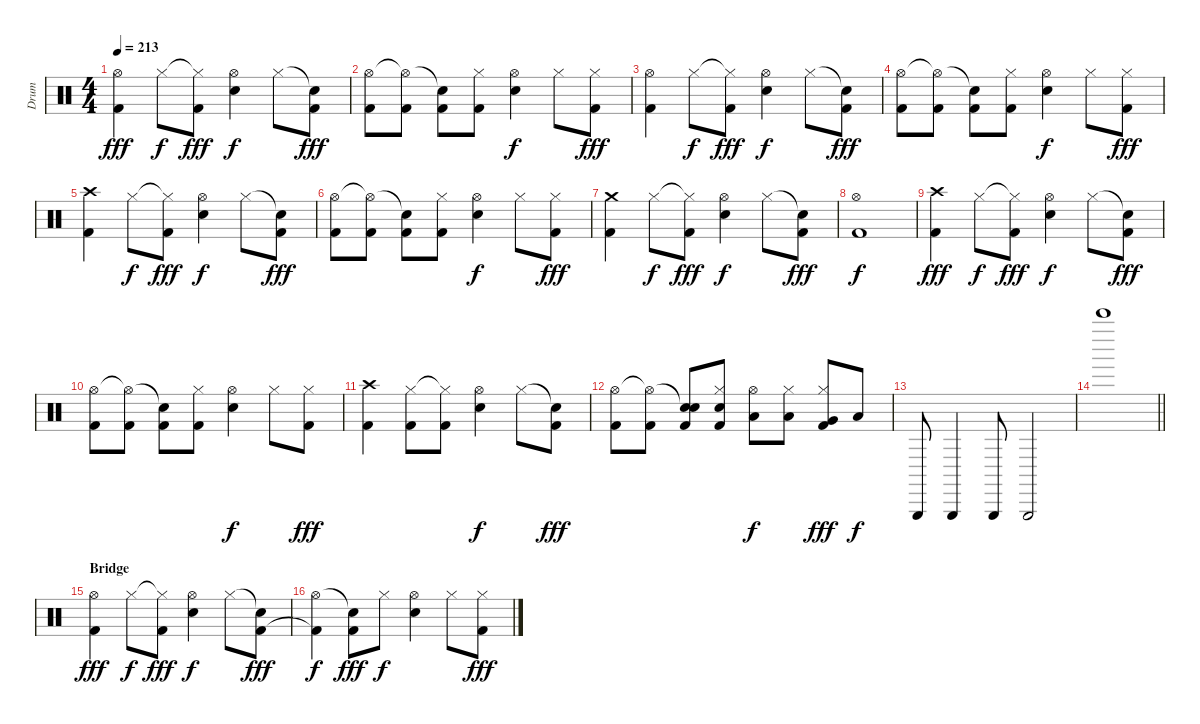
\track ("Drum" "Drum") {instrument percussion}
\staff {score}
\articulation defaults
\ts (4 4)
\tempo 213
\clef neutral
\ks c
("Hi-Hat (open)" "Kick (hit) 2").4{dy fff} "Hi-Hat (closed)".8{dy f} ("Hi-Hat (closed)"{t} "Kick (hit) 2").8{dy fff} ("Hi-Hat (open)" "Snare (hit) 2").4{dy f} "Hi-Hat (closed)".8 ("Snare (hit)"{t} "Kick (hit) 2").8{dy fff} |
("Hi-Hat (open)" "Kick (hit) 2").8 ("Hi-Hat (open)"{t} "Kick (hit) 2").8 ("Snare (hit)"{t} "Kick (hit) 2").8 ("Hi-Hat (closed)" "Kick (hit) 2").8 ("Hi-Hat (open)" "Snare (hit) 2").4{dy f} "Hi-Hat (closed)".8 ("Hi-Hat (closed)" "Kick (hit) 2").8{dy fff} |
("Hi-Hat (open)" "Kick (hit) 2").4 "Hi-Hat (closed)".8{dy f} ("Hi-Hat (closed)"{t} "Kick (hit) 2").8{dy fff} ("Hi-Hat (open)" "Snare (hit) 2").4{dy f} "Hi-Hat (closed)".8 ("Snare (hit)"{t} "Kick (hit) 2").8{dy fff} |
("Hi-Hat (open)" "Kick (hit) 2").8 ("Hi-Hat (open)"{t} "Kick (hit) 2").8 ("Snare (hit)"{t} "Kick (hit) 2").8 ("Hi-Hat (closed)" "Kick (hit) 2").8 ("Hi-Hat (open)" "Snare (hit) 2").4{dy f} "Hi-Hat (closed)".8 ("Hi-Hat (closed)" "Kick (hit) 2").8{dy fff} |
("Crash high (hit)" "Kick (hit) 2").4 "Hi-Hat (closed)".8{dy f} ("Hi-Hat (closed)"{t} "Kick (hit) 2").8{dy fff} ("Hi-Hat (open)" "Snare (hit) 2").4{dy f} "Hi-Hat (closed)".8 ("Snare (hit)"{t} "Kick (hit) 2").8{dy fff} |
("Hi-Hat (open)" "Kick (hit) 2").8 ("Hi-Hat (open)"{t} "Kick (hit) 2").8 ("Snare (hit)"{t} "Kick (hit) 2").8 ("Hi-Hat (closed)" "Kick (hit) 2").8 ("Hi-Hat (open)" "Snare (hit) 2").4{dy f} "Hi-Hat (closed)".8 ("Hi-Hat (closed)" "Kick (hit) 2").8{dy fff} |
("Crash medium (hit)" "Kick (hit) 2").4 "Hi-Hat (closed)".8{dy f} ("Hi-Hat (closed)"{t} "Kick (hit) 2").8{dy fff} ("Hi-Hat (open)" "Snare (hit) 2").4{dy f} "Hi-Hat (closed)".8 ("Snare (hit)"{t} "Kick (hit) 2").8{dy fff} |
("Hi-Hat (open)" "Kick (hit) 2").1{dy f} |
("Crash high (hit)" "Kick (hit) 2").4{dy fff} "Hi-Hat (closed)".8{dy f} ("Hi-Hat (closed)"{t} "Kick (hit) 2").8{dy fff} ("Hi-Hat (open)" "Snare (hit) 2").4{dy f} "Hi-Hat (closed)".8 ("Snare (hit)"{t} "Kick (hit) 2").8{dy fff} |
("Hi-Hat (open)" "Kick (hit) 2").8 ("Hi-Hat (open)"{t} "Kick (hit) 2").8 ("Snare (hit)"{t} "Kick (hit) 2").8 ("Hi-Hat (closed)" "Kick (hit) 2").8 ("Hi-Hat (open)" "Snare (hit) 2").4{dy f} "Hi-Hat (closed)".8 ("Hi-Hat (closed)" "Kick (hit) 2").8{dy fff} |
("Crash high (hit)" "Kick (hit) 2").4 ("Hi-Hat (closed)" "Kick (hit) 2").8 ("Hi-Hat (closed)"{t} "Kick (hit) 2").8 ("Hi-Hat (open)" "Snare (hit) 2").4{dy f} "Hi-Hat (closed)".8 ("Snare (hit)"{t} "Kick (hit) 2").8{dy fff} |
("Hi-Hat (open)" "Kick (hit) 2").8 ("Hi-Hat (open)"{t} "Kick (hit) 2").8 ("Snare (hit)"{t} "Snare (hit) 2" "Kick (hit) 2").8 ("Hi-Hat (closed)" "Snare (hit) 2" "Kick (hit) 2").8 ("Hi-Hat (open)" "Low Tom (hit)").8{dy f} ("Hi-Hat (closed)" "Low Tom (hit)").8 ("Hi-Hat (closed)" "Very Low Tom (hit)" "Kick (hit) 2").8{dy fff} "Low Floor Tom (hit)".8{dy f} |
"Triangle (hit)".8 "Triangle (hit)".4 "Triangle (hit)".8 "Triangle (hit)".2 |
\barLineRight lightlight "Bell Tree (hit)".1
|
\section ("" "Bridge")
("Hi-Hat (open)" "Kick (hit) 2").4{dy fff} "Hi-Hat (closed)".8{dy f} ("Hi-Hat (closed)"{t} "Kick (hit) 2").8{dy fff} ("Hi-Hat (open)" "Snare (hit) 2").4{dy f} "Hi-Hat (closed)".8 ("Snare (hit)"{t} "Kick (hit) 2").8{dy fff} |
("Hi-Hat (open)" "Kick (hit) 2"{t}).4{dy f} ("Snare (hit)"{t} "Kick (hit) 2").8{dy fff} "Hi-Hat (closed)".8{dy f} ("Hi-Hat (open)" "Snare (hit) 2").4 "Hi-Hat (closed)".8 ("Hi-Hat (closed)" "Kick (hit) 2").8{dy fff}
